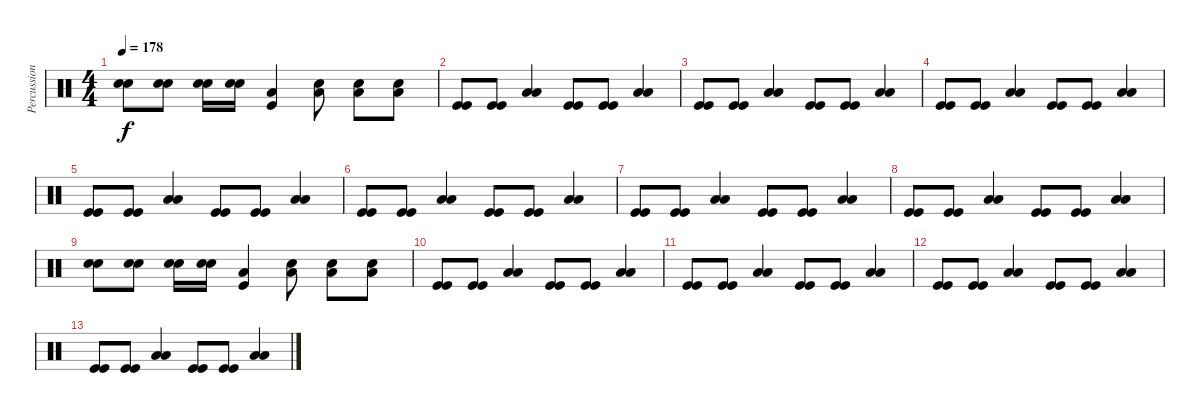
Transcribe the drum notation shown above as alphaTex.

\track ("Percussion" "Percussion") {instrument percussion}
\staff {score}
\articulation defaults
\ts (4 4)
\tempo 178
\clef neutral
\ks c
("Snare (hit) 2" "Electric Snare (hit)").8{dy f} ("Snare (hit) 2" "Electric Snare (hit)").8 ("Electric Snare (hit)" "Electric Snare (hit)").16 ("Electric Snare (hit)" "Electric Snare (hit)").16 ("Low Tom (hit)" "Kick (hit)").4 ("Low Tom (hit)" "Snare (hit) 2").8 ("Low Tom (hit)" "Snare (hit) 2").8 ("Low Tom (hit)" "Snare (hit) 2").8 |
("Kick (hit)" "Kick (hit)").8 ("Kick (hit)" "Kick (hit)").8 ("Low Tom (hit)" "Low Tom (hit)").4 ("Kick (hit)" "Kick (hit)").8 ("Kick (hit)" "Kick (hit)").8 ("Low Tom (hit)" "Low Tom (hit)").4 |
("Kick (hit)" "Kick (hit)").8 ("Kick (hit)" "Kick (hit)").8 ("Low Tom (hit)" "Low Tom (hit)").4 ("Kick (hit)" "Kick (hit)").8 ("Kick (hit)" "Kick (hit)").8 ("Low Tom (hit)" "Low Tom (hit)").4 |
("Kick (hit)" "Kick (hit)").8 ("Kick (hit)" "Kick (hit)").8 ("Low Tom (hit)" "Low Tom (hit)").4 ("Kick (hit)" "Kick (hit)").8 ("Kick (hit)" "Kick (hit)").8 ("Low Tom (hit)" "Low Tom (hit)").4 |
("Kick (hit)" "Kick (hit)").8 ("Kick (hit)" "Kick (hit)").8 ("Low Tom (hit)" "Low Tom (hit)").4 ("Kick (hit)" "Kick (hit)").8 ("Kick (hit)" "Kick (hit)").8 ("Low Tom (hit)" "Low Tom (hit)").4 |
("Kick (hit)" "Kick (hit)").8 ("Kick (hit)" "Kick (hit)").8 ("Low Tom (hit)" "Low Tom (hit)").4 ("Kick (hit)" "Kick (hit)").8 ("Kick (hit)" "Kick (hit)").8 ("Low Tom (hit)" "Low Tom (hit)").4 |
("Kick (hit)" "Kick (hit)").8 ("Kick (hit)" "Kick (hit)").8 ("Low Tom (hit)" "Low Tom (hit)").4 ("Kick (hit)" "Kick (hit)").8 ("Kick (hit)" "Kick (hit)").8 ("Low Tom (hit)" "Low Tom (hit)").4 |
("Kick (hit)" "Kick (hit)").8 ("Kick (hit)" "Kick (hit)").8 ("Low Tom (hit)" "Low Tom (hit)").4 ("Kick (hit)" "Kick (hit)").8 ("Kick (hit)" "Kick (hit)").8 ("Low Tom (hit)" "Low Tom (hit)").4 |
("Snare (hit) 2" "Electric Snare (hit)").8 ("Snare (hit) 2" "Electric Snare (hit)").8 ("Electric Snare (hit)" "Electric Snare (hit)").16 ("Electric Snare (hit)" "Electric Snare (hit)").16 ("Low Tom (hit)" "Kick (hit)").4 ("Low Tom (hit)" "Snare (hit) 2").8 ("Low Tom (hit)" "Snare (hit) 2").8 ("Low Tom (hit)" "Snare (hit) 2").8 |
("Kick (hit)" "Kick (hit)").8 ("Kick (hit)" "Kick (hit)").8 ("Low Tom (hit)" "Low Tom (hit)").4 ("Kick (hit)" "Kick (hit)").8 ("Kick (hit)" "Kick (hit)").8 ("Low Tom (hit)" "Low Tom (hit)").4 |
("Kick (hit)" "Kick (hit)").8 ("Kick (hit)" "Kick (hit)").8 ("Low Tom (hit)" "Low Tom (hit)").4 ("Kick (hit)" "Kick (hit)").8 ("Kick (hit)" "Kick (hit)").8 ("Low Tom (hit)" "Low Tom (hit)").4 |
("Kick (hit)" "Kick (hit)").8 ("Kick (hit)" "Kick (hit)").8 ("Low Tom (hit)" "Low Tom (hit)").4 ("Kick (hit)" "Kick (hit)").8 ("Kick (hit)" "Kick (hit)").8 ("Low Tom (hit)" "Low Tom (hit)").4 |
("Kick (hit)" "Kick (hit)").8 ("Kick (hit)" "Kick (hit)").8 ("Low Tom (hit)" "Low Tom (hit)").4 ("Kick (hit)" "Kick (hit)").8 ("Kick (hit)" "Kick (hit)").8 ("Low Tom (hit)" "Low Tom (hit)").4
